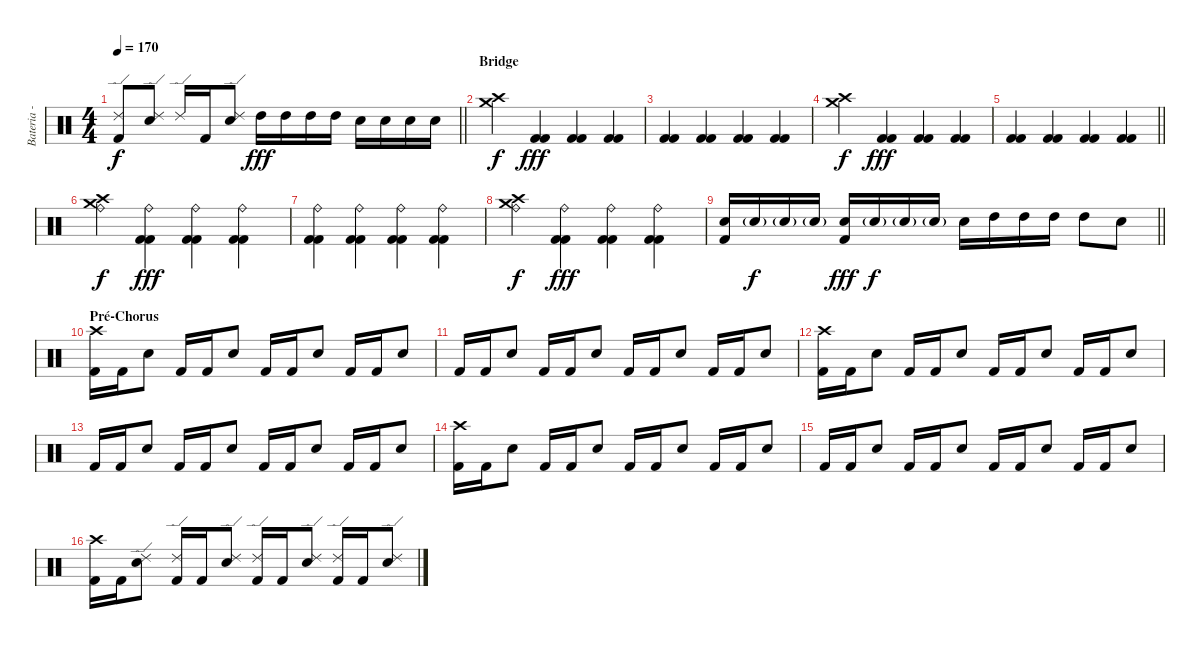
\track ("Bateria - Larzon" "Bateria - ") {instrument percussion}
\staff {score}
\articulation defaults
\ts (4 4)
\tempo 170
\clef neutral
\barLineRight lightlight
\ks c
("Kick (hit) 2" "Ride (edge) 2").8{dy f} ("Snare (hit) 2" "Ride (edge) 2").8 "Ride (edge) 2".16 "Kick (hit) 2".16 ("Snare (hit) 2" "Ride (edge) 2").8 "High Tom (hit)".16{dy fff} "High Tom (hit)".16 "High Tom (hit)".16 "High Tom (hit)".16 "Snare (hit) 2".16 "Snare (hit) 2".16 "Snare (hit) 2".16 "Snare (hit) 2".16 |
\section ("" "Bridge")
("Crash medium (hit)" "Crash high (hit)").4{dy f} ("Kick (hit) 2" "Kick (hit) 2").4{dy fff} ("Kick (hit) 2" "Kick (hit) 2").4 ("Kick (hit) 2" "Kick (hit) 2").4 |
("Kick (hit) 2" "Kick (hit) 2").4 ("Kick (hit) 2" "Kick (hit) 2").4 ("Kick (hit) 2" "Kick (hit) 2").4 ("Kick (hit) 2" "Kick (hit) 2").4 |
("Crash medium (hit)" "Crash high (hit)").4{dy f} ("Kick (hit) 2" "Kick (hit) 2").4{dy fff} ("Kick (hit) 2" "Kick (hit) 2").4 ("Kick (hit) 2" "Kick (hit) 2").4 |
\barLineRight lightlight
("Kick (hit) 2" "Kick (hit) 2").4 ("Kick (hit) 2" "Kick (hit) 2").4 ("Kick (hit) 2" "Kick (hit) 2").4 ("Kick (hit) 2" "Kick (hit) 2").4 |
("Crash medium (hit)" "Crash high (hit)" "Ride (bell)").4{dy f} ("Kick (hit) 2" "Kick (hit) 2" "Ride (bell)").4{dy fff} ("Kick (hit) 2" "Kick (hit) 2" "Ride (bell)").4 ("Kick (hit) 2" "Kick (hit) 2" "Ride (bell)").4 |
("Kick (hit) 2" "Kick (hit) 2" "Ride (bell)").4 ("Kick (hit) 2" "Kick (hit) 2" "Ride (bell)").4 ("Kick (hit) 2" "Kick (hit) 2" "Ride (bell)").4 ("Kick (hit) 2" "Kick (hit) 2" "Ride (bell)").4 |
("Crash medium (hit)" "Crash high (hit)" "Ride (bell)").4{dy f} ("Kick (hit) 2" "Kick (hit) 2" "Ride (bell)").4{dy fff} ("Kick (hit) 2" "Kick (hit) 2" "Ride (bell)").4 ("Kick (hit) 2" "Kick (hit) 2" "Ride (bell)").4 |
\barLineRight lightlight
("Snare (hit) 2" "Kick (hit) 2").16 "Snare (hit) 2"{g}.16{dy f} "Snare (hit) 2"{g}.16 "Snare (hit) 2"{g}.16 ("Snare (hit) 2" "Kick (hit) 2").16{dy fff} "Snare (hit) 2"{g}.16{dy f} "Snare (hit) 2"{g}.16 "Snare (hit) 2"{g}.16 "Snare (hit) 2".16 "High Tom (hit)".16 "High Tom (hit)".16 "High Tom (hit)".16 "High Tom (hit)".8 "Snare (hit) 2".8 |
\section ("" "Pré-Chorus")
("Kick (hit) 2" "Crash high (hit)").16 "Kick (hit) 2".16 "Snare (hit) 2".8 "Kick (hit) 2".16 "Kick (hit) 2".16 "Snare (hit) 2".8 "Kick (hit) 2".16 "Kick (hit) 2".16 "Snare (hit) 2".8 "Kick (hit) 2".16 "Kick (hit) 2".16 "Snare (hit) 2".8 |
"Kick (hit) 2".16 "Kick (hit) 2".16 "Snare (hit) 2".8 "Kick (hit) 2".16 "Kick (hit) 2".16 "Snare (hit) 2".8 "Kick (hit) 2".16 "Kick (hit) 2".16 "Snare (hit) 2".8 "Kick (hit) 2".16 "Kick (hit) 2".16 "Snare (hit) 2".8 |
("Kick (hit) 2" "Crash high (hit)").16 "Kick (hit) 2".16 "Snare (hit) 2".8 "Kick (hit) 2".16 "Kick (hit) 2".16 "Snare (hit) 2".8 "Kick (hit) 2".16 "Kick (hit) 2".16 "Snare (hit) 2".8 "Kick (hit) 2".16 "Kick (hit) 2".16 "Snare (hit) 2".8 |
"Kick (hit) 2".16 "Kick (hit) 2".16 "Snare (hit) 2".8 "Kick (hit) 2".16 "Kick (hit) 2".16 "Snare (hit) 2".8 "Kick (hit) 2".16 "Kick (hit) 2".16 "Snare (hit) 2".8 "Kick (hit) 2".16 "Kick (hit) 2".16 "Snare (hit) 2".8 |
("Kick (hit) 2" "Crash high (hit)").16 "Kick (hit) 2".16 "Snare (hit) 2".8 "Kick (hit) 2".16 "Kick (hit) 2".16 "Snare (hit) 2".8 "Kick (hit) 2".16 "Kick (hit) 2".16 "Snare (hit) 2".8 "Kick (hit) 2".16 "Kick (hit) 2".16 "Snare (hit) 2".8 |
"Kick (hit) 2".16 "Kick (hit) 2".16 "Snare (hit) 2".8 "Kick (hit) 2".16 "Kick (hit) 2".16 "Snare (hit) 2".8 "Kick (hit) 2".16 "Kick (hit) 2".16 "Snare (hit) 2".8 "Kick (hit) 2".16 "Kick (hit) 2".16 "Snare (hit) 2".8 |
("Kick (hit) 2" "Crash high (hit)").16 "Kick (hit) 2".16 ("Snare (hit) 2" "Ride (edge) 2").8 ("Kick (hit) 2" "Ride (edge) 2").16 "Kick (hit) 2".16 ("Snare (hit) 2" "Ride (edge) 2").8 ("Kick (hit) 2" "Ride (edge) 2").16 "Kick (hit) 2".16 ("Snare (hit) 2" "Ride (edge) 2").8 ("Kick (hit) 2" "Ride (edge) 2").16 "Kick (hit) 2".16 ("Snare (hit) 2" "Ride (edge) 2").8
